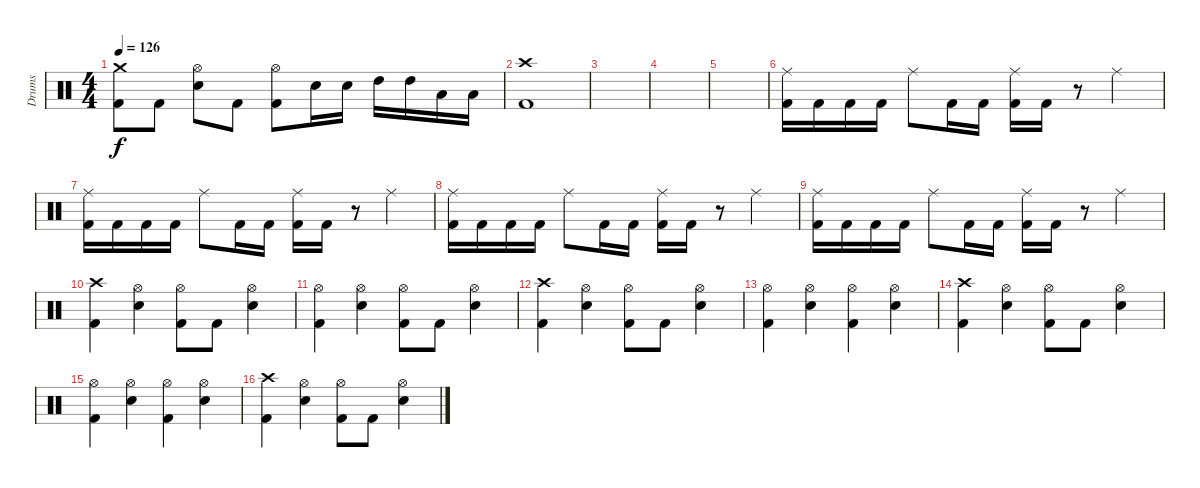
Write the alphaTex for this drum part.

\track ("Drums" "Drums") {instrument percussion}
\staff {score}
\articulation defaults
\ts (4 4)
\tempo 126
\clef neutral
\ks c
("Crash medium (hit)" "Kick (hit) 2").8{dy f} "Kick (hit) 2".8 ("Hi-Hat (open)" "Electric Snare (hit)").8 "Kick (hit) 2".8 ("Hi-Hat (open)" "Kick (hit) 2").8 "Electric Snare (hit)".16 "Electric Snare (hit)".16 "High Tom (hit)".16 "High Tom (hit)".16 "Low Tom (hit)".16 "Low Tom (hit)".16 |
("Crash high (hit)" "Kick (hit) 2").1 |
|
|
|
("Ride (middle)" "Kick (hit) 2").16 "Kick (hit) 2".16 "Kick (hit) 2".16 "Kick (hit) 2".16 "Ride (middle)".8 "Kick (hit) 2".16 "Kick (hit) 2".16 ("Ride (middle)" "Kick (hit) 2").16 "Kick (hit) 2".16 r.8 "Ride (middle)".4 |
("Ride (middle)" "Kick (hit) 2").16 "Kick (hit) 2".16 "Kick (hit) 2".16 "Kick (hit) 2".16 "Ride (middle)".8 "Kick (hit) 2".16 "Kick (hit) 2".16 ("Ride (middle)" "Kick (hit) 2").16 "Kick (hit) 2".16 r.8 "Ride (middle)".4 |
("Ride (middle)" "Kick (hit) 2").16 "Kick (hit) 2".16 "Kick (hit) 2".16 "Kick (hit) 2".16 "Ride (middle)".8 "Kick (hit) 2".16 "Kick (hit) 2".16 ("Ride (middle)" "Kick (hit) 2").16 "Kick (hit) 2".16 r.8 "Ride (middle)".4 |
("Ride (middle)" "Kick (hit) 2").16 "Kick (hit) 2".16 "Kick (hit) 2".16 "Kick (hit) 2".16 "Ride (middle)".8 "Kick (hit) 2".16 "Kick (hit) 2".16 ("Ride (middle)" "Kick (hit) 2").16 "Kick (hit) 2".16 r.8 "Ride (middle)".4 |
("Crash high (hit)" "Kick (hit) 2").4 ("Hi-Hat (open)" "Electric Snare (hit)").4 ("Hi-Hat (open)" "Kick (hit) 2").8 "Kick (hit) 2".8 ("Hi-Hat (open)" "Electric Snare (hit)").4 |
("Hi-Hat (open)" "Kick (hit) 2").4 ("Hi-Hat (open)" "Electric Snare (hit)").4 ("Hi-Hat (open)" "Kick (hit) 2").8 "Kick (hit) 2".8 ("Hi-Hat (open)" "Electric Snare (hit)").4 |
("Crash high (hit)" "Kick (hit) 2").4 ("Hi-Hat (open)" "Electric Snare (hit)").4 ("Hi-Hat (open)" "Kick (hit) 2").8 "Kick (hit) 2".8 ("Hi-Hat (open)" "Electric Snare (hit)").4 |
("Hi-Hat (open)" "Kick (hit) 2").4 ("Hi-Hat (open)" "Electric Snare (hit)").4 ("Hi-Hat (open)" "Kick (hit) 2").4 ("Hi-Hat (open)" "Electric Snare (hit)").4 |
("Crash high (hit)" "Kick (hit) 2").4 ("Hi-Hat (open)" "Electric Snare (hit)").4 ("Hi-Hat (open)" "Kick (hit) 2").8 "Kick (hit) 2".8 ("Hi-Hat (open)" "Electric Snare (hit)").4 |
("Hi-Hat (open)" "Kick (hit) 2").4 ("Hi-Hat (open)" "Electric Snare (hit)").4 ("Hi-Hat (open)" "Kick (hit) 2").4 ("Hi-Hat (open)" "Electric Snare (hit)").4 |
("Crash high (hit)" "Kick (hit) 2").4 ("Hi-Hat (open)" "Electric Snare (hit)").4 ("Hi-Hat (open)" "Kick (hit) 2").8 "Kick (hit) 2".8 ("Hi-Hat (open)" "Electric Snare (hit)").4
